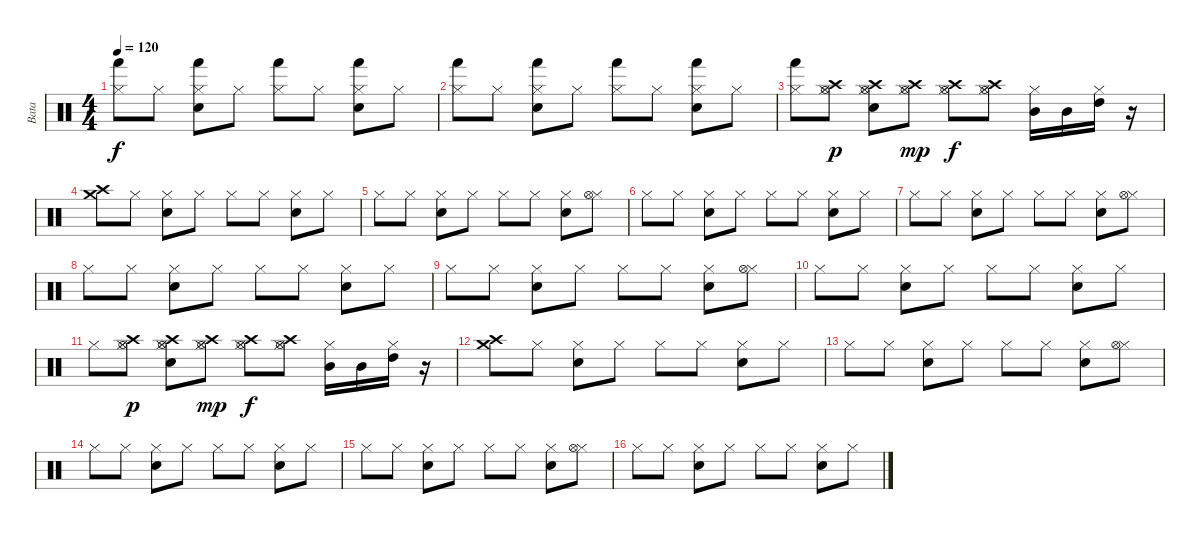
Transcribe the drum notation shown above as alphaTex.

\track ("Bata" "Bata") {instrument percussion}
\staff {score}
\articulation defaults
\ts (4 4)
\tempo 120
\clef neutral
\ks c
("Hi-Hat (closed)" "Hand (hit)").8{dy f} "Hi-Hat (closed)".8 ("Hi-Hat (closed)" "Electric Snare (hit)" "Hand (hit)").8 "Hi-Hat (closed)".8 ("Hi-Hat (closed)" "Hand (hit)").8 "Hi-Hat (closed)".8 ("Hi-Hat (closed)" "Electric Snare (hit)" "Hand (hit)").8 "Hi-Hat (closed)".8 |
("Hi-Hat (closed)" "Hand (hit)").8 "Hi-Hat (closed)".8 ("Hi-Hat (closed)" "Electric Snare (hit)" "Hand (hit)").8 "Hi-Hat (closed)".8 ("Hi-Hat (closed)" "Hand (hit)").8 "Hi-Hat (closed)".8 ("Hi-Hat (closed)" "Electric Snare (hit)" "Hand (hit)").8 "Hi-Hat (closed)".8 |
("Hi-Hat (closed)" "Hand (hit)").8 ("Hi-Hat (closed)" "Hi-Hat (open)" "Crash high (hit)").8{dy p} ("Hi-Hat (closed)" "Electric Snare (hit)" "Hi-Hat (open)" "Crash high (hit)").8 ("Hi-Hat (closed)" "Hi-Hat (open)" "Crash high (hit)").8{dy mp} ("Hi-Hat (closed)" "Hi-Hat (open)" "Crash high (hit)").8{dy f} ("Hi-Hat (closed)" "Hi-Hat (open)" "Crash high (hit)").8 ("Hi-Hat (closed)" "Mid Tom (hit)").16 "Mid Tom (hit)".16 ("Hi-Hat (closed)" "High Tom (hit)").16 r.16 |
("Crash medium (hit)" "Crash high (hit)").8 "Hi-Hat (closed)".8 ("Hi-Hat (closed)" "Electric Snare (hit)").8 "Hi-Hat (closed)".8 "Hi-Hat (closed)".8 "Hi-Hat (closed)".8 ("Hi-Hat (closed)" "Electric Snare (hit)").8 "Hi-Hat (closed)".8 |
"Hi-Hat (closed)".8 "Hi-Hat (closed)".8 ("Hi-Hat (closed)" "Electric Snare (hit)").8 "Hi-Hat (closed)".8 "Hi-Hat (closed)".8 "Hi-Hat (closed)".8 ("Hi-Hat (closed)" "Electric Snare (hit)").8 ("Hi-Hat (closed)" "Hi-Hat (open)").8 |
"Hi-Hat (closed)".8 "Hi-Hat (closed)".8 ("Hi-Hat (closed)" "Electric Snare (hit)").8 "Hi-Hat (closed)".8 "Hi-Hat (closed)".8 "Hi-Hat (closed)".8 ("Hi-Hat (closed)" "Electric Snare (hit)").8 "Hi-Hat (closed)".8 |
"Hi-Hat (closed)".8 "Hi-Hat (closed)".8 ("Hi-Hat (closed)" "Electric Snare (hit)").8 "Hi-Hat (closed)".8 "Hi-Hat (closed)".8 "Hi-Hat (closed)".8 ("Hi-Hat (closed)" "Electric Snare (hit)").8 ("Hi-Hat (closed)" "Hi-Hat (open)").8 |
"Hi-Hat (closed)".8 "Hi-Hat (closed)".8 ("Hi-Hat (closed)" "Electric Snare (hit)").8 "Hi-Hat (closed)".8 "Hi-Hat (closed)".8 "Hi-Hat (closed)".8 ("Hi-Hat (closed)" "Electric Snare (hit)").8 "Hi-Hat (closed)".8 |
"Hi-Hat (closed)".8 "Hi-Hat (closed)".8 ("Hi-Hat (closed)" "Electric Snare (hit)").8 "Hi-Hat (closed)".8 "Hi-Hat (closed)".8 "Hi-Hat (closed)".8 ("Hi-Hat (closed)" "Electric Snare (hit)").8 ("Hi-Hat (closed)" "Hi-Hat (open)").8 |
"Hi-Hat (closed)".8 "Hi-Hat (closed)".8 ("Hi-Hat (closed)" "Electric Snare (hit)").8 "Hi-Hat (closed)".8 "Hi-Hat (closed)".8 "Hi-Hat (closed)".8 ("Hi-Hat (closed)" "Electric Snare (hit)").8 "Hi-Hat (closed)".8 |
"Hi-Hat (closed)".8 ("Hi-Hat (closed)" "Hi-Hat (open)" "Crash high (hit)").8{dy p} ("Hi-Hat (closed)" "Electric Snare (hit)" "Hi-Hat (open)" "Crash high (hit)").8 ("Hi-Hat (closed)" "Hi-Hat (open)" "Crash high (hit)").8{dy mp} ("Hi-Hat (closed)" "Hi-Hat (open)" "Crash high (hit)").8{dy f} ("Hi-Hat (closed)" "Hi-Hat (open)" "Crash high (hit)").8 ("Hi-Hat (closed)" "Mid Tom (hit)").16 "Mid Tom (hit)".16 ("Hi-Hat (closed)" "High Tom (hit)").16 r.16 |
("Crash high (hit)" "Crash medium (hit)").8 "Hi-Hat (closed)".8 ("Hi-Hat (closed)" "Electric Snare (hit)").8 "Hi-Hat (closed)".8 "Hi-Hat (closed)".8 "Hi-Hat (closed)".8 ("Hi-Hat (closed)" "Electric Snare (hit)").8 "Hi-Hat (closed)".8 |
"Hi-Hat (closed)".8 "Hi-Hat (closed)".8 ("Hi-Hat (closed)" "Electric Snare (hit)").8 "Hi-Hat (closed)".8 "Hi-Hat (closed)".8 "Hi-Hat (closed)".8 ("Hi-Hat (closed)" "Electric Snare (hit)").8 ("Hi-Hat (closed)" "Hi-Hat (open)").8 |
"Hi-Hat (closed)".8 "Hi-Hat (closed)".8 ("Hi-Hat (closed)" "Electric Snare (hit)").8 "Hi-Hat (closed)".8 "Hi-Hat (closed)".8 "Hi-Hat (closed)".8 ("Hi-Hat (closed)" "Electric Snare (hit)").8 "Hi-Hat (closed)".8 |
"Hi-Hat (closed)".8 "Hi-Hat (closed)".8 ("Hi-Hat (closed)" "Electric Snare (hit)").8 "Hi-Hat (closed)".8 "Hi-Hat (closed)".8 "Hi-Hat (closed)".8 ("Hi-Hat (closed)" "Electric Snare (hit)").8 ("Hi-Hat (closed)" "Hi-Hat (open)").8 |
"Hi-Hat (closed)".8 "Hi-Hat (closed)".8 ("Hi-Hat (closed)" "Electric Snare (hit)").8 "Hi-Hat (closed)".8 "Hi-Hat (closed)".8 "Hi-Hat (closed)".8 ("Hi-Hat (closed)" "Electric Snare (hit)").8 "Hi-Hat (closed)".8
